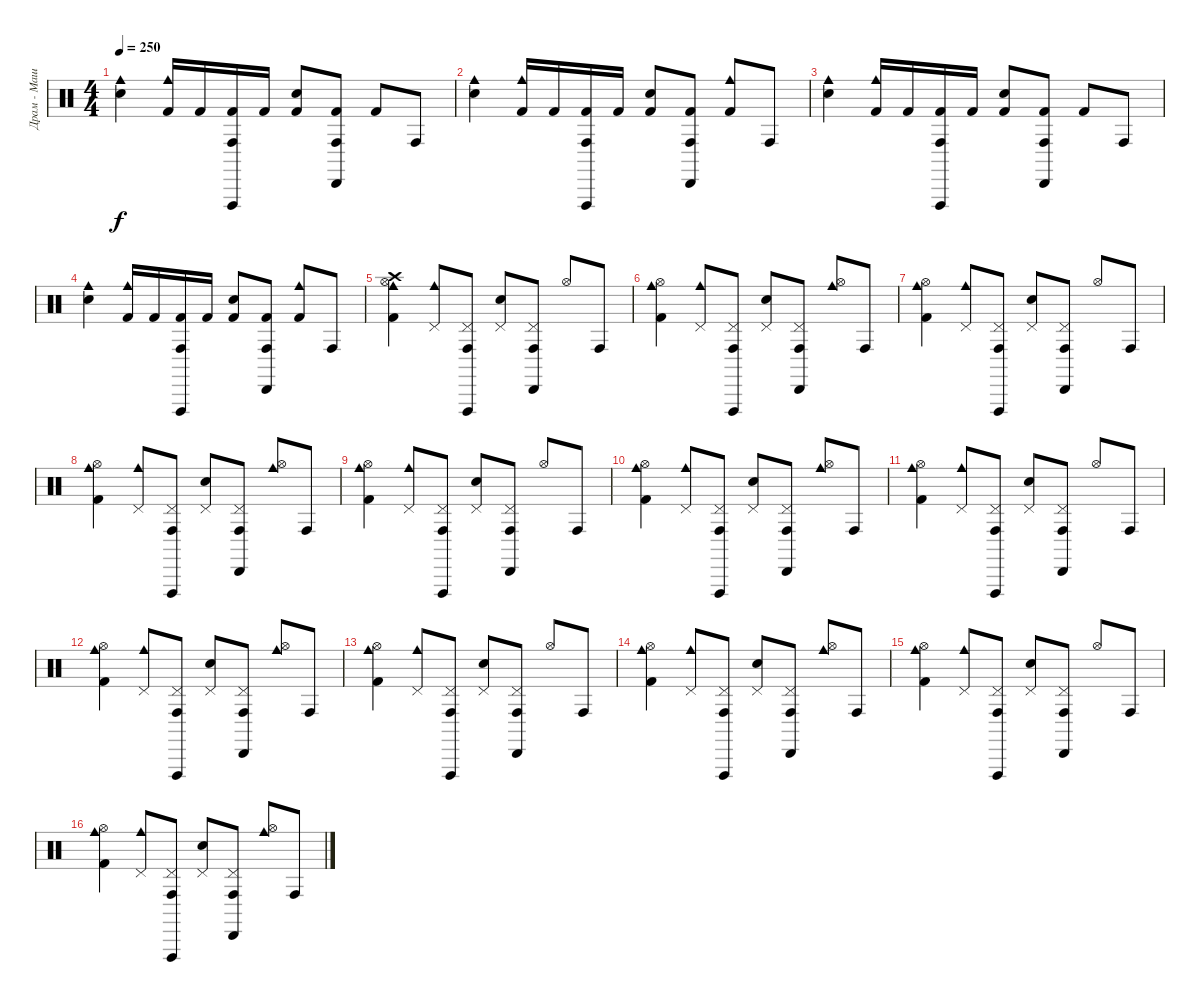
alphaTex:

\track ("Драм - Машина" "Драм - Маш") {instrument percussion}
\staff {score}
\articulation defaults
\ts (4 4)
\tempo 250
\clef neutral
\ks c
("Cowbell medium (hit)" "Electric Snare (hit)").4{dy f} ("Cowbell medium (hit)" "Kick (hit) 2").16 "Kick (hit) 2".16 ("Kick (hit) 2" "Conga high (hit)" "Vibraslap (hit)").16 "Kick (hit) 2".16 ("Electric Snare (hit)" "Kick (hit) 2").8 ("Cabasa (hit)" "Conga high (hit)" "Kick (hit) 2").8 "Kick (hit) 2".8 "Conga high (hit)".8 |
("Cowbell medium (hit)" "Electric Snare (hit)").4 ("Cowbell medium (hit)" "Kick (hit) 2").16 "Kick (hit) 2".16 ("Kick (hit) 2" "Conga high (hit)" "Vibraslap (hit)").16 "Kick (hit) 2".16 ("Electric Snare (hit)" "Kick (hit) 2").8 ("Cabasa (hit)" "Conga high (hit)" "Kick (hit) 2").8 ("Cowbell medium (hit)" "Kick (hit) 2").8 "Conga high (hit)".8 |
("Cowbell medium (hit)" "Electric Snare (hit)").4 ("Cowbell medium (hit)" "Kick (hit) 2").16 "Kick (hit) 2".16 ("Kick (hit) 2" "Conga high (hit)" "Vibraslap (hit)").16 "Kick (hit) 2".16 ("Electric Snare (hit)" "Kick (hit) 2").8 ("Cabasa (hit)" "Conga high (hit)" "Kick (hit) 2").8 "Kick (hit) 2".8 "Conga high (hit)".8 |
("Cowbell medium (hit)" "Electric Snare (hit)").4 ("Cowbell medium (hit)" "Kick (hit) 2").16 "Kick (hit) 2".16 ("Kick (hit) 2" "Conga high (hit)" "Vibraslap (hit)").16 "Kick (hit) 2".16 ("Electric Snare (hit)" "Kick (hit) 2").8 ("Cabasa (hit)" "Conga high (hit)" "Kick (hit) 2").8 ("Cowbell medium (hit)" "Kick (hit) 2").8 "Conga high (hit)".8 |
("Cowbell medium (hit)" "Crash high (hit)" "Hi-Hat (open)" "Kick (hit) 2").4 ("Cowbell medium (hit)" "Pedal Hi-Hat (hit)").8 ("Conga high (hit)" "Vibraslap (hit)" "Pedal Hi-Hat (hit)").8 ("Pedal Hi-Hat (hit)" "Snare (hit) 2").8 ("Cabasa (hit)" "Conga high (hit)" "Pedal Hi-Hat (hit)").8 "Hi-Hat (open)".8 "Conga high (hit)".8 |
("Cowbell medium (hit)" "Hi-Hat (open)" "Kick (hit) 2").4 ("Cowbell medium (hit)" "Pedal Hi-Hat (hit)").8 ("Conga high (hit)" "Vibraslap (hit)" "Pedal Hi-Hat (hit)").8 ("Pedal Hi-Hat (hit)" "Snare (hit) 2").8 ("Cabasa (hit)" "Conga high (hit)" "Pedal Hi-Hat (hit)").8 ("Cowbell medium (hit)" "Hi-Hat (open)").8 "Conga high (hit)".8 |
("Cowbell medium (hit)" "Hi-Hat (open)" "Kick (hit) 2").4 ("Cowbell medium (hit)" "Pedal Hi-Hat (hit)").8 ("Conga high (hit)" "Vibraslap (hit)" "Pedal Hi-Hat (hit)").8 ("Pedal Hi-Hat (hit)" "Snare (hit) 2").8 ("Cabasa (hit)" "Conga high (hit)" "Pedal Hi-Hat (hit)").8 "Hi-Hat (open)".8 "Conga high (hit)".8 |
("Cowbell medium (hit)" "Hi-Hat (open)" "Kick (hit) 2").4 ("Cowbell medium (hit)" "Pedal Hi-Hat (hit)").8 ("Conga high (hit)" "Vibraslap (hit)" "Pedal Hi-Hat (hit)").8 ("Pedal Hi-Hat (hit)" "Snare (hit) 2").8 ("Cabasa (hit)" "Conga high (hit)" "Pedal Hi-Hat (hit)").8 ("Cowbell medium (hit)" "Hi-Hat (open)").8 "Conga high (hit)".8 |
("Cowbell medium (hit)" "Hi-Hat (open)" "Kick (hit) 2").4 ("Cowbell medium (hit)" "Pedal Hi-Hat (hit)").8 ("Conga high (hit)" "Vibraslap (hit)" "Pedal Hi-Hat (hit)").8 ("Pedal Hi-Hat (hit)" "Snare (hit) 2").8 ("Cabasa (hit)" "Conga high (hit)" "Pedal Hi-Hat (hit)").8 "Hi-Hat (open)".8 "Conga high (hit)".8 |
("Cowbell medium (hit)" "Hi-Hat (open)" "Kick (hit) 2").4 ("Cowbell medium (hit)" "Pedal Hi-Hat (hit)").8 ("Conga high (hit)" "Vibraslap (hit)" "Pedal Hi-Hat (hit)").8 ("Pedal Hi-Hat (hit)" "Snare (hit) 2").8 ("Cabasa (hit)" "Conga high (hit)" "Pedal Hi-Hat (hit)").8 ("Cowbell medium (hit)" "Hi-Hat (open)").8 "Conga high (hit)".8 |
("Cowbell medium (hit)" "Hi-Hat (open)" "Kick (hit) 2").4 ("Cowbell medium (hit)" "Pedal Hi-Hat (hit)").8 ("Conga high (hit)" "Vibraslap (hit)" "Pedal Hi-Hat (hit)").8 ("Pedal Hi-Hat (hit)" "Snare (hit) 2").8 ("Cabasa (hit)" "Conga high (hit)" "Pedal Hi-Hat (hit)").8 "Hi-Hat (open)".8 "Conga high (hit)".8 |
("Cowbell medium (hit)" "Hi-Hat (open)" "Kick (hit) 2").4 ("Cowbell medium (hit)" "Pedal Hi-Hat (hit)").8 ("Conga high (hit)" "Vibraslap (hit)" "Pedal Hi-Hat (hit)").8 ("Pedal Hi-Hat (hit)" "Snare (hit) 2").8 ("Cabasa (hit)" "Conga high (hit)" "Pedal Hi-Hat (hit)").8 ("Cowbell medium (hit)" "Hi-Hat (open)").8 "Conga high (hit)".8 |
("Cowbell medium (hit)" "Hi-Hat (open)" "Kick (hit) 2").4 ("Cowbell medium (hit)" "Pedal Hi-Hat (hit)").8 ("Conga high (hit)" "Vibraslap (hit)" "Pedal Hi-Hat (hit)").8 ("Pedal Hi-Hat (hit)" "Snare (hit) 2").8 ("Cabasa (hit)" "Conga high (hit)" "Pedal Hi-Hat (hit)").8 "Hi-Hat (open)".8 "Conga high (hit)".8 |
("Cowbell medium (hit)" "Hi-Hat (open)" "Kick (hit) 2").4 ("Cowbell medium (hit)" "Pedal Hi-Hat (hit)").8 ("Conga high (hit)" "Vibraslap (hit)" "Pedal Hi-Hat (hit)").8 ("Pedal Hi-Hat (hit)" "Snare (hit) 2").8 ("Cabasa (hit)" "Conga high (hit)" "Pedal Hi-Hat (hit)").8 ("Cowbell medium (hit)" "Hi-Hat (open)").8 "Conga high (hit)".8 |
("Cowbell medium (hit)" "Hi-Hat (open)" "Kick (hit) 2").4 ("Cowbell medium (hit)" "Pedal Hi-Hat (hit)").8 ("Conga high (hit)" "Vibraslap (hit)" "Pedal Hi-Hat (hit)").8 ("Pedal Hi-Hat (hit)" "Snare (hit) 2").8 ("Cabasa (hit)" "Conga high (hit)" "Pedal Hi-Hat (hit)").8 "Hi-Hat (open)".8 "Conga high (hit)".8 |
("Cowbell medium (hit)" "Hi-Hat (open)" "Kick (hit) 2").4 ("Cowbell medium (hit)" "Pedal Hi-Hat (hit)").8 ("Conga high (hit)" "Vibraslap (hit)" "Pedal Hi-Hat (hit)").8 ("Pedal Hi-Hat (hit)" "Snare (hit) 2").8 ("Cabasa (hit)" "Conga high (hit)" "Pedal Hi-Hat (hit)").8 ("Cowbell medium (hit)" "Hi-Hat (open)").8 "Conga high (hit)".8
